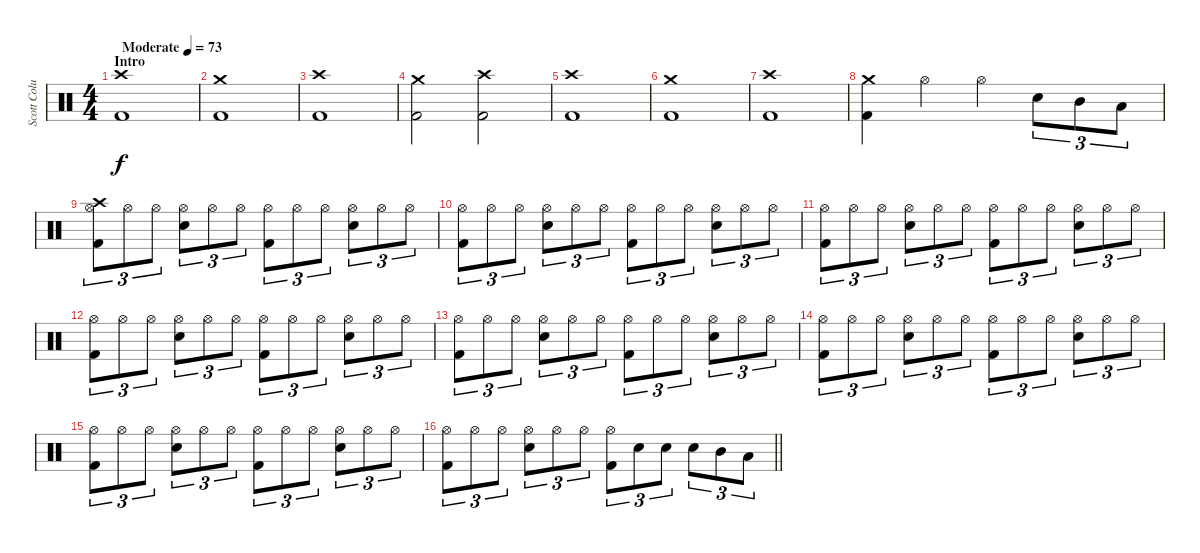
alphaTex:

\track ("Scott Columbus" "Scott Colu") {instrument percussion}
\staff {score}
\articulation defaults
\ts (4 4)
\section ("" "Intro")
\tempo (73 "Moderate")
\clef neutral
\ks c
("Kick (hit) 2" "Crash high (hit)").1{dy f} |
("Kick (hit) 2" "Crash medium (hit)").1 |
("Kick (hit) 2" "Crash high (hit)").1 |
("Kick (hit) 2" "Crash medium (hit)").2 ("Kick (hit) 2" "Crash high (hit)").2 |
("Kick (hit) 2" "Crash high (hit)").1 |
("Kick (hit) 2" "Crash medium (hit)").1 |
("Kick (hit) 2" "Crash high (hit)").1 |
("Kick (hit) 2" "Crash medium (hit)").4 "Hi-Hat (open)".4 "Hi-Hat (open)".4 "Electric Snare (hit)".8{tu (3 2)} "Mid Tom (hit)".8{tu (3 2)} "Low Tom (hit)".8{tu (3 2)} |
("Kick (hit) 2" "Hi-Hat (open)" "Crash high (hit)").8{tu (3 2)} "Hi-Hat (open)".8{tu (3 2)} "Hi-Hat (open)".8{tu (3 2)} ("Electric Snare (hit)" "Hi-Hat (open)").8{tu (3 2)} "Hi-Hat (open)".8{tu (3 2)} "Hi-Hat (open)".8{tu (3 2)} ("Kick (hit) 2" "Hi-Hat (open)").8{tu (3 2)} "Hi-Hat (open)".8{tu (3 2)} "Hi-Hat (open)".8{tu (3 2)} ("Electric Snare (hit)" "Hi-Hat (open)").8{tu (3 2)} "Hi-Hat (open)".8{tu (3 2)} "Hi-Hat (open)".8{tu (3 2)} |
("Kick (hit) 2" "Hi-Hat (open)").8{tu (3 2)} "Hi-Hat (open)".8{tu (3 2)} "Hi-Hat (open)".8{tu (3 2)} ("Electric Snare (hit)" "Hi-Hat (open)").8{tu (3 2)} "Hi-Hat (open)".8{tu (3 2)} "Hi-Hat (open)".8{tu (3 2)} ("Kick (hit) 2" "Hi-Hat (open)").8{tu (3 2)} "Hi-Hat (open)".8{tu (3 2)} "Hi-Hat (open)".8{tu (3 2)} ("Electric Snare (hit)" "Hi-Hat (open)").8{tu (3 2)} "Hi-Hat (open)".8{tu (3 2)} "Hi-Hat (open)".8{tu (3 2)} |
("Kick (hit) 2" "Hi-Hat (open)").8{tu (3 2)} "Hi-Hat (open)".8{tu (3 2)} "Hi-Hat (open)".8{tu (3 2)} ("Electric Snare (hit)" "Hi-Hat (open)").8{tu (3 2)} "Hi-Hat (open)".8{tu (3 2)} "Hi-Hat (open)".8{tu (3 2)} ("Kick (hit) 2" "Hi-Hat (open)").8{tu (3 2)} "Hi-Hat (open)".8{tu (3 2)} "Hi-Hat (open)".8{tu (3 2)} ("Electric Snare (hit)" "Hi-Hat (open)").8{tu (3 2)} "Hi-Hat (open)".8{tu (3 2)} "Hi-Hat (open)".8{tu (3 2)} |
("Kick (hit) 2" "Hi-Hat (open)").8{tu (3 2)} "Hi-Hat (open)".8{tu (3 2)} "Hi-Hat (open)".8{tu (3 2)} ("Electric Snare (hit)" "Hi-Hat (open)").8{tu (3 2)} "Hi-Hat (open)".8{tu (3 2)} "Hi-Hat (open)".8{tu (3 2)} ("Kick (hit) 2" "Hi-Hat (open)").8{tu (3 2)} "Hi-Hat (open)".8{tu (3 2)} "Hi-Hat (open)".8{tu (3 2)} ("Electric Snare (hit)" "Hi-Hat (open)").8{tu (3 2)} "Hi-Hat (open)".8{tu (3 2)} "Hi-Hat (open)".8{tu (3 2)} |
("Kick (hit) 2" "Hi-Hat (open)").8{tu (3 2)} "Hi-Hat (open)".8{tu (3 2)} "Hi-Hat (open)".8{tu (3 2)} ("Electric Snare (hit)" "Hi-Hat (open)").8{tu (3 2)} "Hi-Hat (open)".8{tu (3 2)} "Hi-Hat (open)".8{tu (3 2)} ("Kick (hit) 2" "Hi-Hat (open)").8{tu (3 2)} "Hi-Hat (open)".8{tu (3 2)} "Hi-Hat (open)".8{tu (3 2)} ("Electric Snare (hit)" "Hi-Hat (open)").8{tu (3 2)} "Hi-Hat (open)".8{tu (3 2)} "Hi-Hat (open)".8{tu (3 2)} |
("Kick (hit) 2" "Hi-Hat (open)").8{tu (3 2)} "Hi-Hat (open)".8{tu (3 2)} "Hi-Hat (open)".8{tu (3 2)} ("Electric Snare (hit)" "Hi-Hat (open)").8{tu (3 2)} "Hi-Hat (open)".8{tu (3 2)} "Hi-Hat (open)".8{tu (3 2)} ("Kick (hit) 2" "Hi-Hat (open)").8{tu (3 2)} "Hi-Hat (open)".8{tu (3 2)} "Hi-Hat (open)".8{tu (3 2)} ("Electric Snare (hit)" "Hi-Hat (open)").8{tu (3 2)} "Hi-Hat (open)".8{tu (3 2)} "Hi-Hat (open)".8{tu (3 2)} |
("Kick (hit) 2" "Hi-Hat (open)").8{tu (3 2)} "Hi-Hat (open)".8{tu (3 2)} "Hi-Hat (open)".8{tu (3 2)} ("Electric Snare (hit)" "Hi-Hat (open)").8{tu (3 2)} "Hi-Hat (open)".8{tu (3 2)} "Hi-Hat (open)".8{tu (3 2)} ("Kick (hit) 2" "Hi-Hat (open)").8{tu (3 2)} "Hi-Hat (open)".8{tu (3 2)} "Hi-Hat (open)".8{tu (3 2)} ("Electric Snare (hit)" "Hi-Hat (open)").8{tu (3 2)} "Hi-Hat (open)".8{tu (3 2)} "Hi-Hat (open)".8{tu (3 2)} |
\barLineRight lightlight
("Kick (hit) 2" "Hi-Hat (open)").8{tu (3 2)} "Hi-Hat (open)".8{tu (3 2)} "Hi-Hat (open)".8{tu (3 2)} ("Electric Snare (hit)" "Hi-Hat (open)").8{tu (3 2)} "Hi-Hat (open)".8{tu (3 2)} "Hi-Hat (open)".8{tu (3 2)} ("Kick (hit) 2" "Hi-Hat (open)").8{tu (3 2)} "Electric Snare (hit)".8{tu (3 2)} "Electric Snare (hit)".8{tu (3 2)} "Electric Snare (hit)".8{tu (3 2)} "Mid Tom (hit)".8{tu (3 2)} "Low Tom (hit)".8{tu (3 2)}
